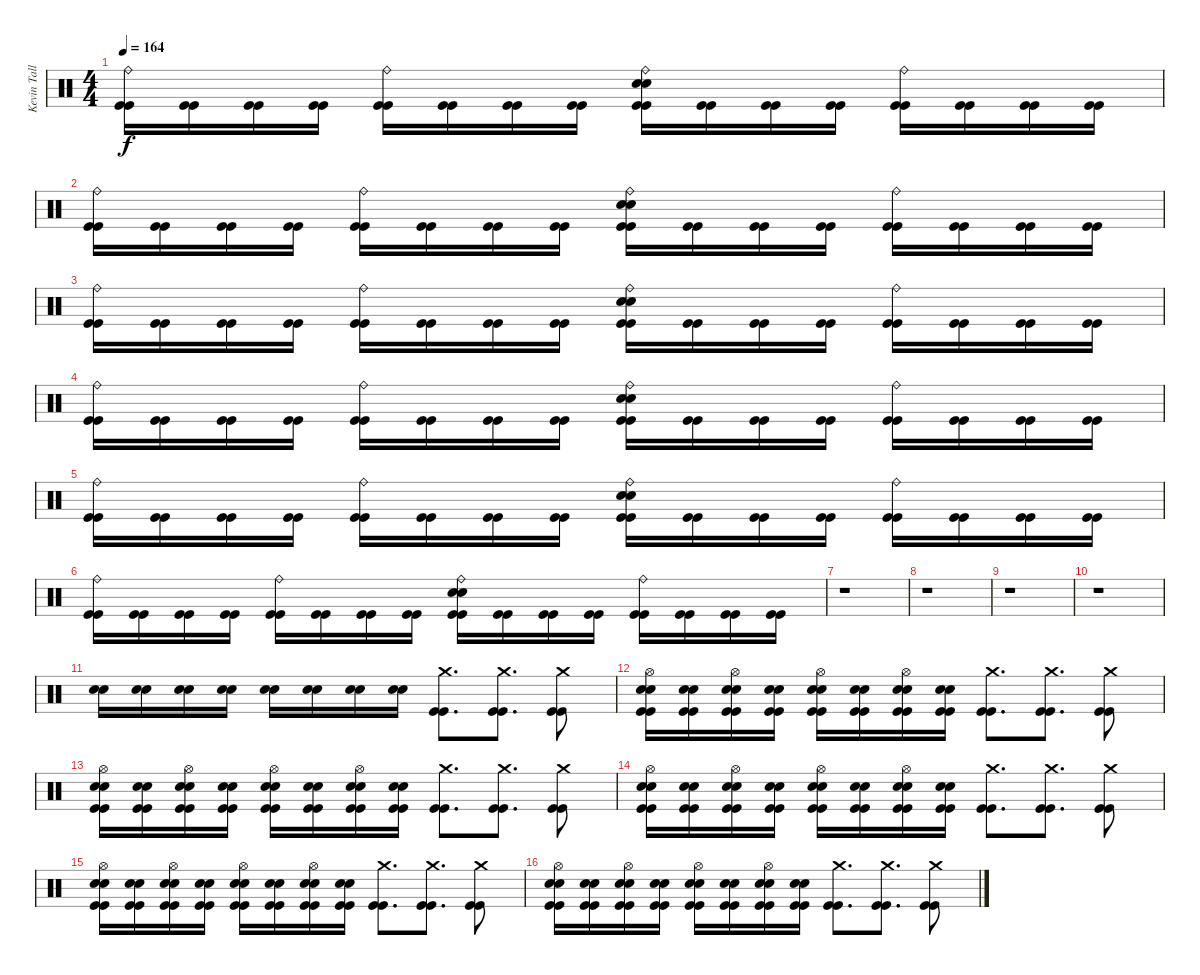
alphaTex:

\track ("Kevin Talley" "Kevin Tall") {instrument percussion}
\staff {score}
\articulation defaults
\ts (4 4)
\tempo 164
\clef neutral
\ks c
("Ride (bell)" "Kick (hit)" "Kick (hit)").16{dy f} ("Kick (hit)" "Kick (hit)").16 ("Kick (hit)" "Kick (hit)").16 ("Kick (hit)" "Kick (hit)").16 ("Ride (bell)" "Kick (hit)" "Kick (hit)").16 ("Kick (hit)" "Kick (hit)").16 ("Kick (hit)" "Kick (hit)").16 ("Kick (hit)" "Kick (hit)").16 ("Snare (hit) 2" "Snare (hit) 2" "Ride (bell)" "Kick (hit)" "Kick (hit)").16 ("Kick (hit)" "Kick (hit)").16 ("Kick (hit)" "Kick (hit)").16 ("Kick (hit)" "Kick (hit)").16 ("Ride (bell)" "Kick (hit)" "Kick (hit)").16 ("Kick (hit)" "Kick (hit)").16 ("Kick (hit)" "Kick (hit)").16 ("Kick (hit)" "Kick (hit)").16 |
("Ride (bell)" "Kick (hit)" "Kick (hit)").16 ("Kick (hit)" "Kick (hit)").16 ("Kick (hit)" "Kick (hit)").16 ("Kick (hit)" "Kick (hit)").16 ("Ride (bell)" "Kick (hit)" "Kick (hit)").16 ("Kick (hit)" "Kick (hit)").16 ("Kick (hit)" "Kick (hit)").16 ("Kick (hit)" "Kick (hit)").16 ("Snare (hit) 2" "Snare (hit) 2" "Ride (bell)" "Kick (hit)" "Kick (hit)").16 ("Kick (hit)" "Kick (hit)").16 ("Kick (hit)" "Kick (hit)").16 ("Kick (hit)" "Kick (hit)").16 ("Ride (bell)" "Kick (hit)" "Kick (hit)").16 ("Kick (hit)" "Kick (hit)").16 ("Kick (hit)" "Kick (hit)").16 ("Kick (hit)" "Kick (hit)").16 |
("Ride (bell)" "Kick (hit)" "Kick (hit)").16 ("Kick (hit)" "Kick (hit)").16 ("Kick (hit)" "Kick (hit)").16 ("Kick (hit)" "Kick (hit)").16 ("Ride (bell)" "Kick (hit)" "Kick (hit)").16 ("Kick (hit)" "Kick (hit)").16 ("Kick (hit)" "Kick (hit)").16 ("Kick (hit)" "Kick (hit)").16 ("Snare (hit) 2" "Snare (hit) 2" "Ride (bell)" "Kick (hit)" "Kick (hit)").16 ("Kick (hit)" "Kick (hit)").16 ("Kick (hit)" "Kick (hit)").16 ("Kick (hit)" "Kick (hit)").16 ("Ride (bell)" "Kick (hit)" "Kick (hit)").16 ("Kick (hit)" "Kick (hit)").16 ("Kick (hit)" "Kick (hit)").16 ("Kick (hit)" "Kick (hit)").16 |
("Ride (bell)" "Kick (hit)" "Kick (hit)").16 ("Kick (hit)" "Kick (hit)").16 ("Kick (hit)" "Kick (hit)").16 ("Kick (hit)" "Kick (hit)").16 ("Ride (bell)" "Kick (hit)" "Kick (hit)").16 ("Kick (hit)" "Kick (hit)").16 ("Kick (hit)" "Kick (hit)").16 ("Kick (hit)" "Kick (hit)").16 ("Snare (hit) 2" "Snare (hit) 2" "Ride (bell)" "Kick (hit)" "Kick (hit)").16 ("Kick (hit)" "Kick (hit)").16 ("Kick (hit)" "Kick (hit)").16 ("Kick (hit)" "Kick (hit)").16 ("Ride (bell)" "Kick (hit)" "Kick (hit)").16 ("Kick (hit)" "Kick (hit)").16 ("Kick (hit)" "Kick (hit)").16 ("Kick (hit)" "Kick (hit)").16 |
("Ride (bell)" "Kick (hit)" "Kick (hit)").16 ("Kick (hit)" "Kick (hit)").16 ("Kick (hit)" "Kick (hit)").16 ("Kick (hit)" "Kick (hit)").16 ("Ride (bell)" "Kick (hit)" "Kick (hit)").16 ("Kick (hit)" "Kick (hit)").16 ("Kick (hit)" "Kick (hit)").16 ("Kick (hit)" "Kick (hit)").16 ("Snare (hit) 2" "Snare (hit) 2" "Ride (bell)" "Kick (hit)" "Kick (hit)").16 ("Kick (hit)" "Kick (hit)").16 ("Kick (hit)" "Kick (hit)").16 ("Kick (hit)" "Kick (hit)").16 ("Ride (bell)" "Kick (hit)" "Kick (hit)").16 ("Kick (hit)" "Kick (hit)").16 ("Kick (hit)" "Kick (hit)").16 ("Kick (hit)" "Kick (hit)").16 |
("Ride (bell)" "Kick (hit)" "Kick (hit)").16 ("Kick (hit)" "Kick (hit)").16 ("Kick (hit)" "Kick (hit)").16 ("Kick (hit)" "Kick (hit)").16 ("Ride (bell)" "Kick (hit)" "Kick (hit)").16 ("Kick (hit)" "Kick (hit)").16 ("Kick (hit)" "Kick (hit)").16 ("Kick (hit)" "Kick (hit)").16 ("Snare (hit) 2" "Snare (hit) 2" "Ride (bell)" "Kick (hit)" "Kick (hit)").16 ("Kick (hit)" "Kick (hit)").16 ("Kick (hit)" "Kick (hit)").16 ("Kick (hit)" "Kick (hit)").16 ("Ride (bell)" "Kick (hit)" "Kick (hit)").16 ("Kick (hit)" "Kick (hit)").16 ("Kick (hit)" "Kick (hit)").16 ("Kick (hit)" "Kick (hit)").16 |
r.1 |
r.1 |
r.1 |
r.1 |
("Snare (hit) 2" "Snare (hit) 2").16 ("Snare (hit) 2" "Snare (hit) 2").16 ("Snare (hit) 2" "Snare (hit) 2").16 ("Snare (hit) 2" "Snare (hit) 2").16 ("Snare (hit) 2" "Snare (hit) 2").16 ("Snare (hit) 2" "Snare (hit) 2").16 ("Snare (hit) 2" "Snare (hit) 2").16 ("Snare (hit) 2" "Snare (hit) 2").16 ("Crash medium (hit)" "Kick (hit)" "Kick (hit)").8{d} ("Crash medium (hit)" "Kick (hit)" "Kick (hit)").8{d} ("Crash medium (hit)" "Kick (hit)" "Kick (hit)").8 |
("Snare (hit) 2" "Snare (hit) 2" "Hi-Hat (open)" "Kick (hit)" "Kick (hit)").16 ("Snare (hit) 2" "Snare (hit) 2" "Kick (hit)" "Kick (hit)").16 ("Snare (hit) 2" "Snare (hit) 2" "Hi-Hat (open)" "Kick (hit)" "Kick (hit)").16 ("Snare (hit) 2" "Snare (hit) 2" "Kick (hit)" "Kick (hit)").16 ("Snare (hit) 2" "Snare (hit) 2" "Hi-Hat (open)" "Kick (hit)" "Kick (hit)").16 ("Snare (hit) 2" "Snare (hit) 2" "Kick (hit)" "Kick (hit)").16 ("Snare (hit) 2" "Snare (hit) 2" "Hi-Hat (open)" "Kick (hit)" "Kick (hit)").16 ("Snare (hit) 2" "Snare (hit) 2" "Kick (hit)" "Kick (hit)").16 ("Crash medium (hit)" "Kick (hit)" "Kick (hit)").8{d} ("Crash medium (hit)" "Kick (hit)" "Kick (hit)").8{d} ("Crash medium (hit)" "Kick (hit)" "Kick (hit)").8 |
("Snare (hit) 2" "Snare (hit) 2" "Hi-Hat (open)" "Kick (hit)" "Kick (hit)").16 ("Snare (hit) 2" "Snare (hit) 2" "Kick (hit)" "Kick (hit)").16 ("Snare (hit) 2" "Snare (hit) 2" "Hi-Hat (open)" "Kick (hit)" "Kick (hit)").16 ("Snare (hit) 2" "Snare (hit) 2" "Kick (hit)" "Kick (hit)").16 ("Snare (hit) 2" "Snare (hit) 2" "Hi-Hat (open)" "Kick (hit)" "Kick (hit)").16 ("Snare (hit) 2" "Snare (hit) 2" "Kick (hit)" "Kick (hit)").16 ("Snare (hit) 2" "Snare (hit) 2" "Hi-Hat (open)" "Kick (hit)" "Kick (hit)").16 ("Snare (hit) 2" "Snare (hit) 2" "Kick (hit)" "Kick (hit)").16 ("Crash medium (hit)" "Kick (hit)" "Kick (hit)").8{d} ("Crash medium (hit)" "Kick (hit)" "Kick (hit)").8{d} ("Crash medium (hit)" "Kick (hit)" "Kick (hit)").8 |
("Snare (hit) 2" "Snare (hit) 2" "Hi-Hat (open)" "Kick (hit)" "Kick (hit)").16 ("Snare (hit) 2" "Snare (hit) 2" "Kick (hit)" "Kick (hit)").16 ("Snare (hit) 2" "Snare (hit) 2" "Hi-Hat (open)" "Kick (hit)" "Kick (hit)").16 ("Snare (hit) 2" "Snare (hit) 2" "Kick (hit)" "Kick (hit)").16 ("Snare (hit) 2" "Snare (hit) 2" "Hi-Hat (open)" "Kick (hit)" "Kick (hit)").16 ("Snare (hit) 2" "Snare (hit) 2" "Kick (hit)" "Kick (hit)").16 ("Snare (hit) 2" "Snare (hit) 2" "Hi-Hat (open)" "Kick (hit)" "Kick (hit)").16 ("Snare (hit) 2" "Snare (hit) 2" "Kick (hit)" "Kick (hit)").16 ("Crash medium (hit)" "Kick (hit)" "Kick (hit)").8{d} ("Crash medium (hit)" "Kick (hit)" "Kick (hit)").8{d} ("Crash medium (hit)" "Kick (hit)" "Kick (hit)").8 |
("Snare (hit) 2" "Snare (hit) 2" "Hi-Hat (open)" "Kick (hit)" "Kick (hit)").16 ("Snare (hit) 2" "Snare (hit) 2" "Kick (hit)" "Kick (hit)").16 ("Snare (hit) 2" "Snare (hit) 2" "Hi-Hat (open)" "Kick (hit)" "Kick (hit)").16 ("Snare (hit) 2" "Snare (hit) 2" "Kick (hit)" "Kick (hit)").16 ("Snare (hit) 2" "Snare (hit) 2" "Hi-Hat (open)" "Kick (hit)" "Kick (hit)").16 ("Snare (hit) 2" "Snare (hit) 2" "Kick (hit)" "Kick (hit)").16 ("Snare (hit) 2" "Snare (hit) 2" "Hi-Hat (open)" "Kick (hit)" "Kick (hit)").16 ("Snare (hit) 2" "Snare (hit) 2" "Kick (hit)" "Kick (hit)").16 ("Crash medium (hit)" "Kick (hit)" "Kick (hit)").8{d} ("Crash medium (hit)" "Kick (hit)" "Kick (hit)").8{d} ("Crash medium (hit)" "Kick (hit)" "Kick (hit)").8 |
("Snare (hit) 2" "Snare (hit) 2" "Hi-Hat (open)" "Kick (hit)" "Kick (hit)").16 ("Snare (hit) 2" "Snare (hit) 2" "Kick (hit)" "Kick (hit)").16 ("Snare (hit) 2" "Snare (hit) 2" "Hi-Hat (open)" "Kick (hit)" "Kick (hit)").16 ("Snare (hit) 2" "Snare (hit) 2" "Kick (hit)" "Kick (hit)").16 ("Snare (hit) 2" "Snare (hit) 2" "Hi-Hat (open)" "Kick (hit)" "Kick (hit)").16 ("Snare (hit) 2" "Snare (hit) 2" "Kick (hit)" "Kick (hit)").16 ("Snare (hit) 2" "Snare (hit) 2" "Hi-Hat (open)" "Kick (hit)" "Kick (hit)").16 ("Snare (hit) 2" "Snare (hit) 2" "Kick (hit)" "Kick (hit)").16 ("Crash medium (hit)" "Kick (hit)" "Kick (hit)").8{d} ("Crash medium (hit)" "Kick (hit)" "Kick (hit)").8{d} ("Crash medium (hit)" "Kick (hit)" "Kick (hit)").8
